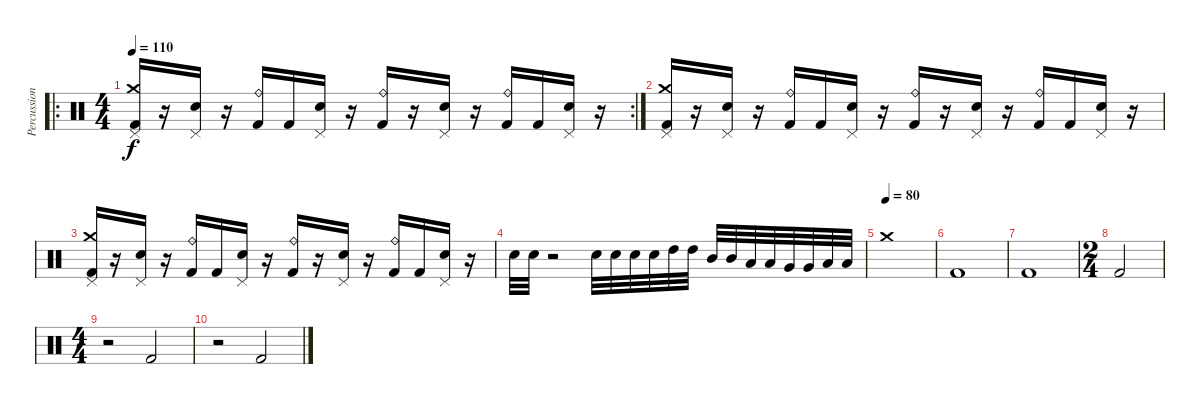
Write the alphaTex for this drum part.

\track ("Percussion" "Percussion") {instrument percussion}
\staff {score}
\articulation defaults
\ro
\rc 2
\ts (4 4)
\tempo 110
\clef neutral
\ks c
("Pedal Hi-Hat (hit)" "Crash medium (hit)" "Kick (hit) 2").16{dy f} r.16 ("Pedal Hi-Hat (hit)" "Snare (hit) 2").16 r.16 ("Ride (bell)" "Kick (hit) 2").16 "Kick (hit) 2".16 ("Pedal Hi-Hat (hit)" "Snare (hit) 2").16 r.16 ("Ride (bell)" "Kick (hit) 2").16 r.16 ("Pedal Hi-Hat (hit)" "Snare (hit) 2").16 r.16 ("Ride (bell)" "Kick (hit) 2").16 "Kick (hit) 2".16 ("Pedal Hi-Hat (hit)" "Snare (hit) 2").16 r.16 |
("Pedal Hi-Hat (hit)" "Crash medium (hit)" "Kick (hit) 2").16 r.16 ("Pedal Hi-Hat (hit)" "Snare (hit) 2").16 r.16 ("Ride (bell)" "Kick (hit) 2").16 "Kick (hit) 2".16 ("Pedal Hi-Hat (hit)" "Snare (hit) 2").16 r.16 ("Ride (bell)" "Kick (hit) 2").16 r.16 ("Pedal Hi-Hat (hit)" "Snare (hit) 2").16 r.16 ("Ride (bell)" "Kick (hit) 2").16 "Kick (hit) 2".16 ("Pedal Hi-Hat (hit)" "Snare (hit) 2").16 r.16 |
("Pedal Hi-Hat (hit)" "Crash medium (hit)" "Kick (hit) 2").16 r.16 ("Pedal Hi-Hat (hit)" "Snare (hit) 2").16 r.16 ("Ride (bell)" "Kick (hit) 2").16 "Kick (hit) 2".16 ("Pedal Hi-Hat (hit)" "Snare (hit) 2").16 r.16 ("Ride (bell)" "Kick (hit) 2").16 r.16 ("Pedal Hi-Hat (hit)" "Snare (hit) 2").16 r.16 ("Ride (bell)" "Kick (hit) 2").16 "Kick (hit) 2".16 ("Pedal Hi-Hat (hit)" "Snare (hit) 2").16 r.16 |
"Snare (hit) 2".32 "Snare (hit) 2".32 r.2 "Snare (hit) 2".32 "Snare (hit) 2".32 "Electric Snare (hit)".32 "Electric Snare (hit)".32 "High Tom (hit)".32 "High Tom (hit)".32 "Mid Tom (hit)".32 "Mid Tom (hit)".32 "Low Tom (hit)".32 "Low Tom (hit)".32 "Very Low Tom (hit)".32 "Very Low Tom (hit)".32 "Low Floor Tom (hit)".32 "Low Floor Tom (hit)".32 |
\tempo (80)
"Crash medium (hit)".1 |
"Kick (hit) 2".1 |
"Kick (hit) 2".1 |
\ts (2 4)
"Kick (hit) 2".2 |
\ts (4 4)
r.2 "Kick (hit) 2".2 |
r.2 "Kick (hit) 2".2
